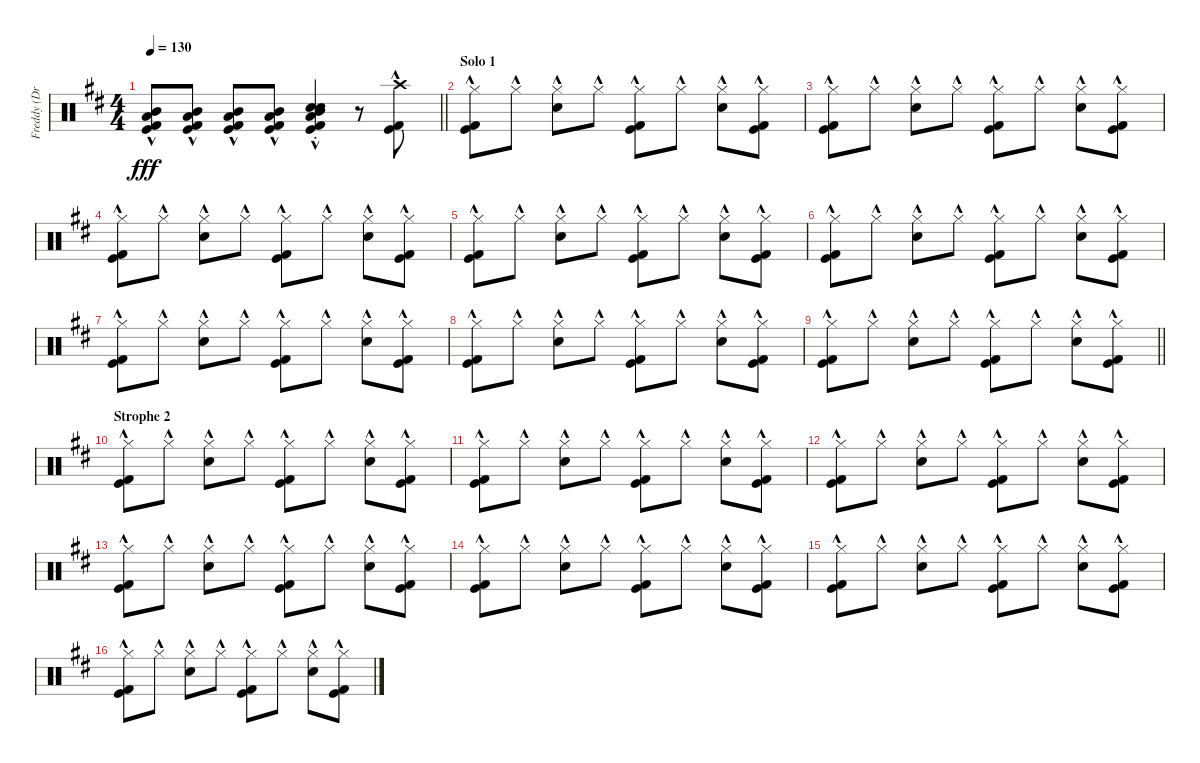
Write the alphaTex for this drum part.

\track ("Freddy (Drums)" "Freddy (Dr") {instrument percussion}
\staff {score}
\articulation defaults
\ts (4 4)
\tempo 130
\clef neutral
\barLineRight lightlight
\ks d
("Kick (hit)"{hac} "Kick (hit) 2"{hac} "Low Tom (hit)"{hac} "Mid Tom (hit)"{hac}).8{dy fff} ("Kick (hit)"{hac} "Kick (hit) 2"{hac} "Low Tom (hit)"{hac} "Mid Tom (hit)"{hac}).8 ("Kick (hit)"{hac} "Kick (hit) 2"{hac} "Low Tom (hit)"{hac} "Mid Tom (hit)"{hac}).8 ("Kick (hit)"{hac} "Kick (hit) 2"{hac} "Low Tom (hit)"{hac} "Mid Tom (hit)"{hac}).8 ("Kick (hit)"{hac st} "Kick (hit) 2"{hac st} "Low Tom (hit)"{hac st} "Mid Tom (hit)"{hac st} "Snare (hit) 2"{hac st} "Electric Snare (hit)"{hac st}).4 r.8 ("Crash high (hit)"{hac} "Kick (hit)"{hac} "Kick (hit) 2"{hac}).8 |
\section ("" "Solo 1")
("Hi-Hat (closed)"{hac} "Kick (hit)"{hac} "Kick (hit) 2"{hac}).8 "Hi-Hat (closed)"{hac}.8 ("Hi-Hat (closed)"{hac} "Snare (hit) 2"{hac}).8 "Hi-Hat (closed)"{hac}.8 ("Hi-Hat (closed)"{hac} "Kick (hit)"{hac} "Kick (hit) 2"{hac}).8 "Hi-Hat (closed)"{hac}.8 ("Hi-Hat (closed)"{hac} "Snare (hit) 2"{hac}).8 ("Hi-Hat (closed)"{hac} "Kick (hit)"{hac} "Kick (hit) 2"{hac}).8 |
("Hi-Hat (closed)"{hac} "Kick (hit)"{hac} "Kick (hit) 2"{hac}).8 "Hi-Hat (closed)"{hac}.8 ("Hi-Hat (closed)"{hac} "Snare (hit) 2"{hac}).8 "Hi-Hat (closed)"{hac}.8 ("Hi-Hat (closed)"{hac} "Kick (hit)"{hac} "Kick (hit) 2"{hac}).8 "Hi-Hat (closed)"{hac}.8 ("Hi-Hat (closed)"{hac} "Snare (hit) 2"{hac}).8 ("Hi-Hat (closed)"{hac} "Kick (hit)"{hac} "Kick (hit) 2"{hac}).8 |
("Hi-Hat (closed)"{hac} "Kick (hit)"{hac} "Kick (hit) 2"{hac}).8 "Hi-Hat (closed)"{hac}.8 ("Hi-Hat (closed)"{hac} "Snare (hit) 2"{hac}).8 "Hi-Hat (closed)"{hac}.8 ("Hi-Hat (closed)"{hac} "Kick (hit)"{hac} "Kick (hit) 2"{hac}).8 "Hi-Hat (closed)"{hac}.8 ("Hi-Hat (closed)"{hac} "Snare (hit) 2"{hac}).8 ("Hi-Hat (closed)"{hac} "Kick (hit)"{hac} "Kick (hit) 2"{hac}).8 |
("Hi-Hat (closed)"{hac} "Kick (hit)"{hac} "Kick (hit) 2"{hac}).8 "Hi-Hat (closed)"{hac}.8 ("Hi-Hat (closed)"{hac} "Snare (hit) 2"{hac}).8 "Hi-Hat (closed)"{hac}.8 ("Hi-Hat (closed)"{hac} "Kick (hit)"{hac} "Kick (hit) 2"{hac}).8 "Hi-Hat (closed)"{hac}.8 ("Hi-Hat (closed)"{hac} "Snare (hit) 2"{hac}).8 ("Hi-Hat (closed)"{hac} "Kick (hit)"{hac} "Kick (hit) 2"{hac}).8 |
("Hi-Hat (closed)"{hac} "Kick (hit)"{hac} "Kick (hit) 2"{hac}).8 "Hi-Hat (closed)"{hac}.8 ("Hi-Hat (closed)"{hac} "Snare (hit) 2"{hac}).8 "Hi-Hat (closed)"{hac}.8 ("Hi-Hat (closed)"{hac} "Kick (hit)"{hac} "Kick (hit) 2"{hac}).8 "Hi-Hat (closed)"{hac}.8 ("Hi-Hat (closed)"{hac} "Snare (hit) 2"{hac}).8 ("Hi-Hat (closed)"{hac} "Kick (hit)"{hac} "Kick (hit) 2"{hac}).8 |
("Hi-Hat (closed)"{hac} "Kick (hit)"{hac} "Kick (hit) 2"{hac}).8 "Hi-Hat (closed)"{hac}.8 ("Hi-Hat (closed)"{hac} "Snare (hit) 2"{hac}).8 "Hi-Hat (closed)"{hac}.8 ("Hi-Hat (closed)"{hac} "Kick (hit)"{hac} "Kick (hit) 2"{hac}).8 "Hi-Hat (closed)"{hac}.8 ("Hi-Hat (closed)"{hac} "Snare (hit) 2"{hac}).8 ("Hi-Hat (closed)"{hac} "Kick (hit)"{hac} "Kick (hit) 2"{hac}).8 |
("Hi-Hat (closed)"{hac} "Kick (hit)"{hac} "Kick (hit) 2"{hac}).8 "Hi-Hat (closed)"{hac}.8 ("Hi-Hat (closed)"{hac} "Snare (hit) 2"{hac}).8 "Hi-Hat (closed)"{hac}.8 ("Hi-Hat (closed)"{hac} "Kick (hit)"{hac} "Kick (hit) 2"{hac}).8 "Hi-Hat (closed)"{hac}.8 ("Hi-Hat (closed)"{hac} "Snare (hit) 2"{hac}).8 ("Hi-Hat (closed)"{hac} "Kick (hit)"{hac} "Kick (hit) 2"{hac}).8 |
\barLineRight lightlight
("Hi-Hat (closed)"{hac} "Kick (hit)"{hac} "Kick (hit) 2"{hac}).8 "Hi-Hat (closed)"{hac}.8 ("Hi-Hat (closed)"{hac} "Snare (hit) 2"{hac}).8 "Hi-Hat (closed)"{hac}.8 ("Hi-Hat (closed)"{hac} "Kick (hit)"{hac} "Kick (hit) 2"{hac}).8 "Hi-Hat (closed)"{hac}.8 ("Hi-Hat (closed)"{hac} "Snare (hit) 2"{hac}).8 ("Hi-Hat (closed)"{hac} "Kick (hit)"{hac} "Kick (hit) 2"{hac}).8 |
\section ("" "Strophe 2")
("Hi-Hat (closed)"{hac} "Kick (hit)"{hac} "Kick (hit) 2"{hac}).8 "Hi-Hat (closed)"{hac}.8 ("Hi-Hat (closed)"{hac} "Snare (hit) 2"{hac}).8 "Hi-Hat (closed)"{hac}.8 ("Hi-Hat (closed)"{hac} "Kick (hit)"{hac} "Kick (hit) 2"{hac}).8 "Hi-Hat (closed)"{hac}.8 ("Hi-Hat (closed)"{hac} "Snare (hit) 2"{hac}).8 ("Hi-Hat (closed)"{hac} "Kick (hit)"{hac} "Kick (hit) 2"{hac}).8 |
("Hi-Hat (closed)"{hac} "Kick (hit)"{hac} "Kick (hit) 2"{hac}).8 "Hi-Hat (closed)"{hac}.8 ("Hi-Hat (closed)"{hac} "Snare (hit) 2"{hac}).8 "Hi-Hat (closed)"{hac}.8 ("Hi-Hat (closed)"{hac} "Kick (hit)"{hac} "Kick (hit) 2"{hac}).8 "Hi-Hat (closed)"{hac}.8 ("Hi-Hat (closed)"{hac} "Snare (hit) 2"{hac}).8 ("Hi-Hat (closed)"{hac} "Kick (hit)"{hac} "Kick (hit) 2"{hac}).8 |
("Hi-Hat (closed)"{hac} "Kick (hit)"{hac} "Kick (hit) 2"{hac}).8 "Hi-Hat (closed)"{hac}.8 ("Hi-Hat (closed)"{hac} "Snare (hit) 2"{hac}).8 "Hi-Hat (closed)"{hac}.8 ("Hi-Hat (closed)"{hac} "Kick (hit)"{hac} "Kick (hit) 2"{hac}).8 "Hi-Hat (closed)"{hac}.8 ("Hi-Hat (closed)"{hac} "Snare (hit) 2"{hac}).8 ("Hi-Hat (closed)"{hac} "Kick (hit)"{hac} "Kick (hit) 2"{hac}).8 |
("Hi-Hat (closed)"{hac} "Kick (hit)"{hac} "Kick (hit) 2"{hac}).8 "Hi-Hat (closed)"{hac}.8 ("Hi-Hat (closed)"{hac} "Snare (hit) 2"{hac}).8 "Hi-Hat (closed)"{hac}.8 ("Hi-Hat (closed)"{hac} "Kick (hit)"{hac} "Kick (hit) 2"{hac}).8 "Hi-Hat (closed)"{hac}.8 ("Hi-Hat (closed)"{hac} "Snare (hit) 2"{hac}).8 ("Hi-Hat (closed)"{hac} "Kick (hit)"{hac} "Kick (hit) 2"{hac}).8 |
("Hi-Hat (closed)"{hac} "Kick (hit)"{hac} "Kick (hit) 2"{hac}).8 "Hi-Hat (closed)"{hac}.8 ("Hi-Hat (closed)"{hac} "Snare (hit) 2"{hac}).8 "Hi-Hat (closed)"{hac}.8 ("Hi-Hat (closed)"{hac} "Kick (hit)"{hac} "Kick (hit) 2"{hac}).8 "Hi-Hat (closed)"{hac}.8 ("Hi-Hat (closed)"{hac} "Snare (hit) 2"{hac}).8 ("Hi-Hat (closed)"{hac} "Kick (hit)"{hac} "Kick (hit) 2"{hac}).8 |
("Hi-Hat (closed)"{hac} "Kick (hit)"{hac} "Kick (hit) 2"{hac}).8 "Hi-Hat (closed)"{hac}.8 ("Hi-Hat (closed)"{hac} "Snare (hit) 2"{hac}).8 "Hi-Hat (closed)"{hac}.8 ("Hi-Hat (closed)"{hac} "Kick (hit)"{hac} "Kick (hit) 2"{hac}).8 "Hi-Hat (closed)"{hac}.8 ("Hi-Hat (closed)"{hac} "Snare (hit) 2"{hac}).8 ("Hi-Hat (closed)"{hac} "Kick (hit)"{hac} "Kick (hit) 2"{hac}).8 |
("Hi-Hat (closed)"{hac} "Kick (hit)"{hac} "Kick (hit) 2"{hac}).8 "Hi-Hat (closed)"{hac}.8 ("Hi-Hat (closed)"{hac} "Snare (hit) 2"{hac}).8 "Hi-Hat (closed)"{hac}.8 ("Hi-Hat (closed)"{hac} "Kick (hit)"{hac} "Kick (hit) 2"{hac}).8 "Hi-Hat (closed)"{hac}.8 ("Hi-Hat (closed)"{hac} "Snare (hit) 2"{hac}).8 ("Hi-Hat (closed)"{hac} "Kick (hit)"{hac} "Kick (hit) 2"{hac}).8
